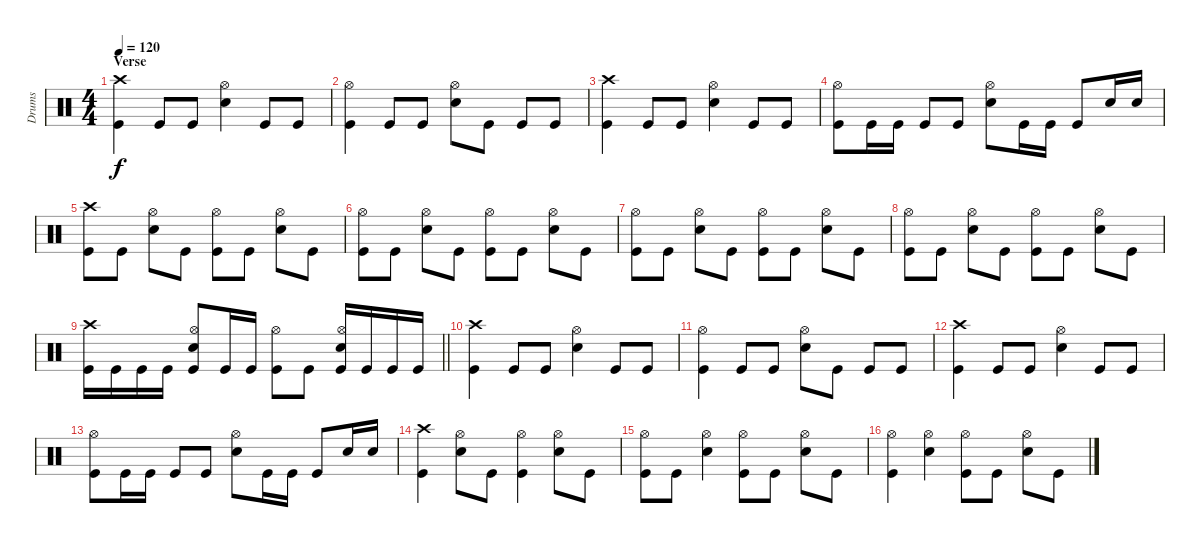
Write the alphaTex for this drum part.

\track ("Drums" "Drums") {instrument percussion}
\staff {score}
\articulation defaults
\ts (4 4)
\section ("" "Verse")
\tempo 120
\clef neutral
\ks c
("Crash high (hit)" "Kick (hit)").4{dy f} "Kick (hit)".8 "Kick (hit)".8 ("Hi-Hat (open)" "Electric Snare (hit)").4 "Kick (hit)".8 "Kick (hit)".8 |
("Hi-Hat (open)" "Kick (hit)").4 "Kick (hit)".8 "Kick (hit)".8 ("Hi-Hat (open)" "Electric Snare (hit)").8 "Kick (hit)".8 "Kick (hit)".8 "Kick (hit)".8 |
("Crash high (hit)" "Kick (hit)").4 "Kick (hit)".8 "Kick (hit)".8 ("Hi-Hat (open)" "Electric Snare (hit)").4 "Kick (hit)".8 "Kick (hit)".8 |
("Hi-Hat (open)" "Kick (hit)").8 "Kick (hit)".16 "Kick (hit)".16 "Kick (hit)".8 "Kick (hit)".8 ("Hi-Hat (open)" "Electric Snare (hit)").8 "Kick (hit)".16 "Kick (hit)".16 "Kick (hit)".8 "Electric Snare (hit)".16 "Electric Snare (hit)".16 |
("Crash high (hit)" "Kick (hit)").8 "Kick (hit)".8 ("Hi-Hat (open)" "Electric Snare (hit)").8 "Kick (hit)".8 ("Hi-Hat (open)" "Kick (hit)").8 "Kick (hit)".8 ("Hi-Hat (open)" "Electric Snare (hit)").8 "Kick (hit)".8 |
("Hi-Hat (open)" "Kick (hit)").8 "Kick (hit)".8 ("Hi-Hat (open)" "Electric Snare (hit)").8 "Kick (hit)".8 ("Hi-Hat (open)" "Kick (hit)").8 "Kick (hit)".8 ("Hi-Hat (open)" "Electric Snare (hit)").8 "Kick (hit)".8 |
("Hi-Hat (open)" "Kick (hit)").8 "Kick (hit)".8 ("Hi-Hat (open)" "Electric Snare (hit)").8 "Kick (hit)".8 ("Hi-Hat (open)" "Kick (hit)").8 "Kick (hit)".8 ("Hi-Hat (open)" "Electric Snare (hit)").8 "Kick (hit)".8 |
("Hi-Hat (open)" "Kick (hit)").8 "Kick (hit)".8 ("Hi-Hat (open)" "Electric Snare (hit)").8 "Kick (hit)".8 ("Hi-Hat (open)" "Kick (hit)").8 "Kick (hit)".8 ("Hi-Hat (open)" "Electric Snare (hit)").8 "Kick (hit)".8 |
\barLineRight lightlight
("Crash high (hit)" "Kick (hit)").16 "Kick (hit)".16 "Kick (hit)".16 "Kick (hit)".16 ("Hi-Hat (open)" "Electric Snare (hit)" "Kick (hit)").8 "Kick (hit)".16 "Kick (hit)".16 ("Hi-Hat (open)" "Kick (hit)").8 "Kick (hit)".8 ("Hi-Hat (open)" "Electric Snare (hit)" "Kick (hit)").16 "Kick (hit)".16 "Kick (hit)".16 "Kick (hit)".16 |
\section ("" "")
("Crash high (hit)" "Kick (hit)").4 "Kick (hit)".8 "Kick (hit)".8 ("Hi-Hat (open)" "Electric Snare (hit)").4 "Kick (hit)".8 "Kick (hit)".8 |
("Hi-Hat (open)" "Kick (hit)").4 "Kick (hit)".8 "Kick (hit)".8 ("Hi-Hat (open)" "Electric Snare (hit)").8 "Kick (hit)".8 "Kick (hit)".8 "Kick (hit)".8 |
("Crash high (hit)" "Kick (hit)").4 "Kick (hit)".8 "Kick (hit)".8 ("Hi-Hat (open)" "Electric Snare (hit)").4 "Kick (hit)".8 "Kick (hit)".8 |
("Hi-Hat (open)" "Kick (hit)").8 "Kick (hit)".16 "Kick (hit)".16 "Kick (hit)".8 "Kick (hit)".8 ("Hi-Hat (open)" "Electric Snare (hit)").8 "Kick (hit)".16 "Kick (hit)".16 "Kick (hit)".8 "Electric Snare (hit)".16 "Electric Snare (hit)".16 |
("Crash high (hit)" "Kick (hit)").4 ("Hi-Hat (open)" "Electric Snare (hit)").8 "Kick (hit)".8 ("Hi-Hat (open)" "Kick (hit)").4 ("Hi-Hat (open)" "Electric Snare (hit)").8 "Kick (hit)".8 |
("Hi-Hat (open)" "Kick (hit)").8 "Kick (hit)".8 ("Hi-Hat (open)" "Electric Snare (hit)").4 ("Hi-Hat (open)" "Kick (hit)").8 "Kick (hit)".8 ("Hi-Hat (open)" "Electric Snare (hit)").8 "Kick (hit)".8 |
("Hi-Hat (open)" "Kick (hit)").4 ("Hi-Hat (open)" "Electric Snare (hit)").4 ("Hi-Hat (open)" "Kick (hit)").8 "Kick (hit)".8 ("Hi-Hat (open)" "Electric Snare (hit)").8 "Kick (hit)".8
